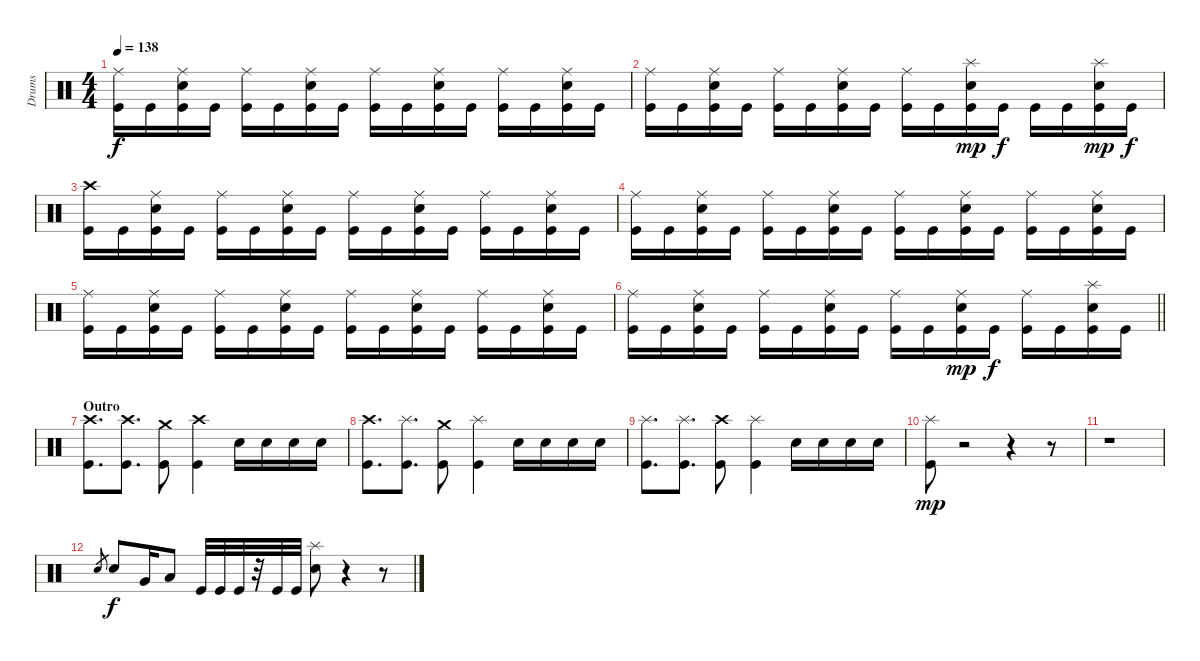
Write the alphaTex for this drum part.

\track ("Drums" "Drums") {instrument percussion}
\staff {score}
\articulation defaults
\ts (4 4)
\tempo 138
\clef neutral
\ks c
("Ride (middle)" "Kick (hit)").16{dy f} "Kick (hit)".16 ("Ride (middle)" "Electric Snare (hit)" "Kick (hit)").16 "Kick (hit)".16 ("Ride (middle)" "Kick (hit)").16 "Kick (hit)".16 ("Ride (middle)" "Electric Snare (hit)" "Kick (hit)").16 "Kick (hit)".16 ("Ride (middle)" "Kick (hit)").16 "Kick (hit)".16 ("Ride (middle)" "Electric Snare (hit)" "Kick (hit)").16 "Kick (hit)".16 ("Ride (middle)" "Kick (hit)").16 "Kick (hit)".16 ("Ride (middle)" "Electric Snare (hit)" "Kick (hit)").16 "Kick (hit)".16 |
("Ride (middle)" "Kick (hit)").16 "Kick (hit)".16 ("Ride (middle)" "Electric Snare (hit)" "Kick (hit)").16 "Kick (hit)".16 ("Ride (middle)" "Kick (hit)").16 "Kick (hit)".16 ("Ride (middle)" "Electric Snare (hit)" "Kick (hit)").16 "Kick (hit)".16 ("Ride (middle)" "Kick (hit)").16 "Kick (hit)".16 ("Splash (hit)" "Electric Snare (hit)" "Kick (hit)").16{dy mp} "Kick (hit)".16{dy f} "Kick (hit)".16 "Kick (hit)".16 ("Splash (hit)" "Electric Snare (hit)" "Kick (hit)").16{dy mp} "Kick (hit)".16{dy f} |
("Crash high (hit)" "Kick (hit)").16 "Kick (hit)".16 ("Ride (middle)" "Electric Snare (hit)" "Kick (hit)").16 "Kick (hit)".16 ("Ride (middle)" "Kick (hit)").16 "Kick (hit)".16 ("Ride (middle)" "Electric Snare (hit)" "Kick (hit)").16 "Kick (hit)".16 ("Ride (middle)" "Kick (hit)").16 "Kick (hit)".16 ("Ride (middle)" "Electric Snare (hit)" "Kick (hit)").16 "Kick (hit)".16 ("Ride (middle)" "Kick (hit)").16 "Kick (hit)".16 ("Ride (middle)" "Electric Snare (hit)" "Kick (hit)").16 "Kick (hit)".16 |
("Ride (middle)" "Kick (hit)").16 "Kick (hit)".16 ("Ride (middle)" "Electric Snare (hit)" "Kick (hit)").16 "Kick (hit)".16 ("Ride (middle)" "Kick (hit)").16 "Kick (hit)".16 ("Ride (middle)" "Electric Snare (hit)" "Kick (hit)").16 "Kick (hit)".16 ("Ride (middle)" "Kick (hit)").16 "Kick (hit)".16 ("Ride (middle)" "Electric Snare (hit)" "Kick (hit)").16 "Kick (hit)".16 ("Ride (middle)" "Kick (hit)").16 "Kick (hit)".16 ("Ride (middle)" "Electric Snare (hit)" "Kick (hit)").16 "Kick (hit)".16 |
("Ride (middle)" "Kick (hit)").16 "Kick (hit)".16 ("Ride (middle)" "Electric Snare (hit)" "Kick (hit)").16 "Kick (hit)".16 ("Ride (middle)" "Kick (hit)").16 "Kick (hit)".16 ("Ride (middle)" "Electric Snare (hit)" "Kick (hit)").16 "Kick (hit)".16 ("Ride (middle)" "Kick (hit)").16 "Kick (hit)".16 ("Ride (middle)" "Electric Snare (hit)" "Kick (hit)").16 "Kick (hit)".16 ("Ride (middle)" "Kick (hit)").16 "Kick (hit)".16 ("Ride (middle)" "Electric Snare (hit)" "Kick (hit)").16 "Kick (hit)".16 |
\barLineRight lightlight
("Ride (middle)" "Kick (hit)").16 "Kick (hit)".16 ("Ride (middle)" "Electric Snare (hit)" "Kick (hit)").16 "Kick (hit)".16 ("Ride (middle)" "Kick (hit)").16 "Kick (hit)".16 ("Ride (middle)" "Electric Snare (hit)" "Kick (hit)").16 "Kick (hit)".16 ("Ride (middle)" "Kick (hit)").16 "Kick (hit)".16 ("Ride (middle)" "Electric Snare (hit)" "Kick (hit)").16{dy mp} "Kick (hit)".16{dy f} ("Ride (middle)" "Kick (hit)").16 "Kick (hit)".16 ("Splash (hit)" "Electric Snare (hit)" "Kick (hit)").16 "Kick (hit)".16 |
\section ("" "Outro")
("Crash high (hit)" "Kick (hit)").8{d} ("Crash high (hit)" "Kick (hit)").8{d} ("Crash medium (hit)" "Kick (hit)").8 ("Crash high (hit)" "Kick (hit)").4 "Electric Snare (hit)".16 "Electric Snare (hit)".16 "Electric Snare (hit)".16 "Electric Snare (hit)".16 |
("Crash high (hit)" "Kick (hit)").8{d} ("Splash (hit)" "Kick (hit)").8{d} ("Crash medium (hit)" "Kick (hit)").8 ("Splash (hit)" "Kick (hit)").4 "Electric Snare (hit)".16 "Electric Snare (hit)".16 "Electric Snare (hit)".16 "Electric Snare (hit)".16 |
("Splash (hit)" "Kick (hit)").8{d} ("Splash (hit)" "Kick (hit)").8{d} ("Crash high (hit)" "Kick (hit)").8 ("Splash (hit)" "Kick (hit)").4 "Electric Snare (hit)".16 "Electric Snare (hit)".16 "Electric Snare (hit)".16 "Electric Snare (hit)".16 |
("Splash (hit)" "Kick (hit)").8{dy mp} r.2 r.4 r.8 |
r.1 |
"Electric Snare (hit)".8{gr} "Electric Snare (hit)".8{dy f} "Very Low Tom (hit)".16 "Low Floor Tom (hit)".8 "Kick (hit)".32 "Kick (hit)".32 "Kick (hit)".32 r.32 "Kick (hit)".32 "Kick (hit)".32 ("Splash (hit)" "Electric Snare (hit)").8 r.4 r.8
